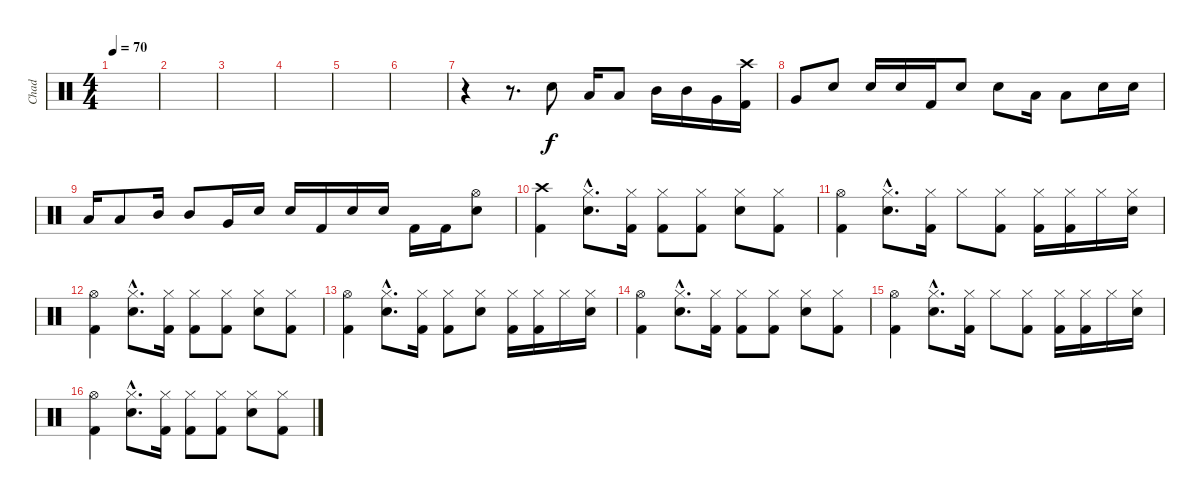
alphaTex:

\track ("Chad" "Chad") {instrument percussion}
\staff {score}
\articulation defaults
\ts (4 4)
\tempo 70
\clef neutral
\ks c
|
|
|
|
|
|
r.4 r.8{d} "Electric Snare (hit)".8 "Low Tom (hit)".16 "Low Tom (hit)".8 "Mid Tom (hit)".16 "Mid Tom (hit)".16 "Very Low Tom (hit)".16 ("Crash high (hit)" "Kick (hit) 2").16 |
"Very Low Tom (hit)".8 "Electric Snare (hit)".8 "Electric Snare (hit)".16 "Electric Snare (hit)".16 "Kick (hit) 2".16 "Electric Snare (hit)".8 "Electric Snare (hit)".8 "Low Tom (hit)".16 "Low Tom (hit)".8 "Electric Snare (hit)".16 "Electric Snare (hit)".16 |
"Low Tom (hit)".16 "Low Tom (hit)".8 "Mid Tom (hit)".16 "Mid Tom (hit)".8 "Very Low Tom (hit)".16 "Electric Snare (hit)".16 "Electric Snare (hit)".16 "Kick (hit) 2".16 "Electric Snare (hit)".16 "Electric Snare (hit)".16 "Kick (hit) 2".16 "Kick (hit) 2".16 ("Electric Snare (hit)" "Hi-Hat (open)").8 |
("Crash high (hit)" "Kick (hit) 2").4 ("Electric Snare (hit)"{hac} "Hi-Hat (closed)"{hac}).8{d} ("Hi-Hat (closed)" "Kick (hit) 2").16 ("Hi-Hat (closed)" "Kick (hit) 2").8 ("Hi-Hat (closed)" "Kick (hit) 2").8 ("Electric Snare (hit)" "Hi-Hat (closed)").8 ("Hi-Hat (closed)" "Kick (hit) 2").8 |
("Hi-Hat (open)" "Kick (hit) 2").4 ("Electric Snare (hit)"{hac} "Hi-Hat (closed)"{hac}).8{d} ("Hi-Hat (closed)" "Kick (hit) 2").16 "Hi-Hat (closed)".8 ("Hi-Hat (closed)" "Kick (hit) 2").8 ("Hi-Hat (closed)" "Kick (hit) 2").16 ("Hi-Hat (closed)" "Kick (hit) 2").16 "Hi-Hat (closed)".16 ("Electric Snare (hit)" "Hi-Hat (closed)").16 |
("Hi-Hat (open)" "Kick (hit) 2").4 ("Electric Snare (hit)"{hac} "Hi-Hat (closed)"{hac}).8{d} ("Hi-Hat (closed)" "Kick (hit) 2").16 ("Hi-Hat (closed)" "Kick (hit) 2").8 ("Hi-Hat (closed)" "Kick (hit) 2").8 ("Electric Snare (hit)" "Hi-Hat (closed)").8 ("Hi-Hat (closed)" "Kick (hit) 2").8 |
("Hi-Hat (open)" "Kick (hit) 2").4 ("Electric Snare (hit)"{hac} "Hi-Hat (closed)"{hac}).8{d} ("Hi-Hat (closed)" "Kick (hit) 2").16 ("Hi-Hat (closed)" "Kick (hit) 2").8 ("Electric Snare (hit)" "Hi-Hat (closed)").8 ("Hi-Hat (closed)" "Kick (hit) 2").16 ("Hi-Hat (closed)" "Kick (hit) 2").16 "Hi-Hat (closed)".16 ("Electric Snare (hit)" "Hi-Hat (closed)").16 |
("Hi-Hat (open)" "Kick (hit) 2").4 ("Electric Snare (hit)"{hac} "Hi-Hat (closed)"{hac}).8{d} ("Hi-Hat (closed)" "Kick (hit) 2").16 ("Hi-Hat (closed)" "Kick (hit) 2").8 ("Hi-Hat (closed)" "Kick (hit) 2").8 ("Electric Snare (hit)" "Hi-Hat (closed)").8 ("Hi-Hat (closed)" "Kick (hit) 2").8 |
("Hi-Hat (open)" "Kick (hit) 2").4 ("Electric Snare (hit)"{hac} "Hi-Hat (closed)"{hac}).8{d} ("Hi-Hat (closed)" "Kick (hit) 2").16 "Hi-Hat (closed)".8 ("Hi-Hat (closed)" "Kick (hit) 2").8 ("Hi-Hat (closed)" "Kick (hit) 2").16 ("Hi-Hat (closed)" "Kick (hit) 2").16 "Hi-Hat (closed)".16 ("Electric Snare (hit)" "Hi-Hat (closed)").16 |
("Hi-Hat (open)" "Kick (hit) 2").4 ("Electric Snare (hit)"{hac} "Hi-Hat (closed)"{hac}).8{d} ("Hi-Hat (closed)" "Kick (hit) 2").16 ("Hi-Hat (closed)" "Kick (hit) 2").8 ("Hi-Hat (closed)" "Kick (hit) 2").8 ("Electric Snare (hit)" "Hi-Hat (closed)").8 ("Hi-Hat (closed)" "Kick (hit) 2").8
